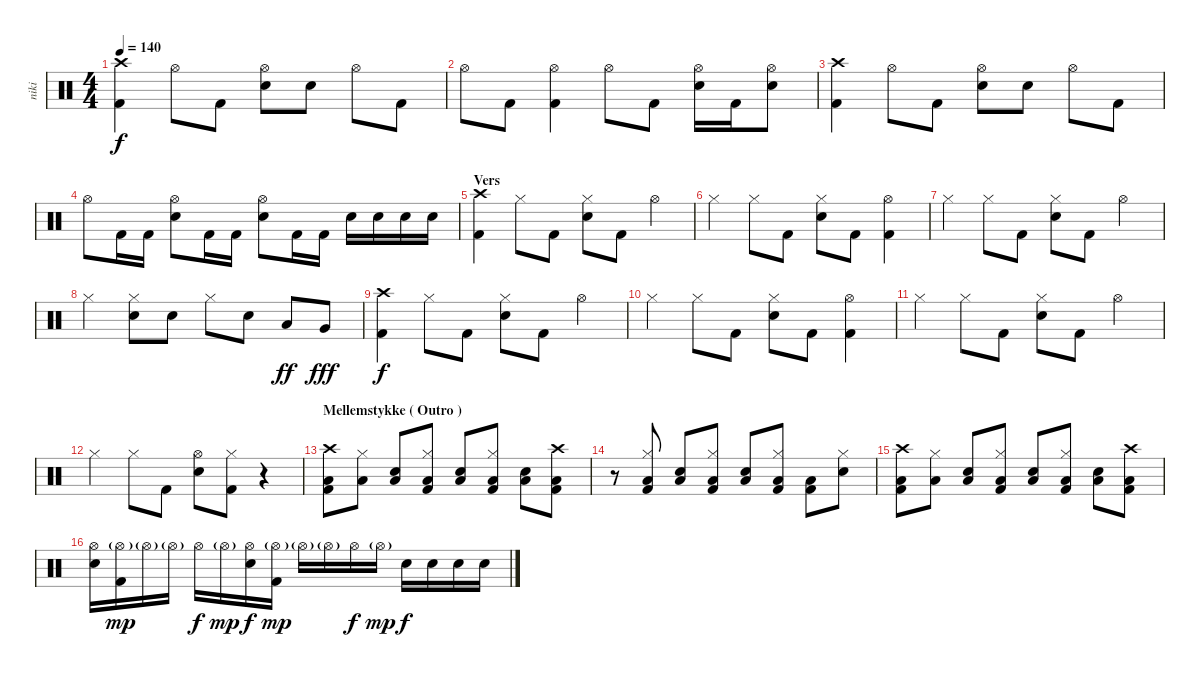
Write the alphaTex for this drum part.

\track ("niki" "niki") {instrument percussion}
\staff {score}
\articulation defaults
\ts (4 4)
\tempo 140
\clef neutral
\ks c
("Crash high (hit)" "Kick (hit) 2").4{dy f} "Hi-Hat (open)".8 "Kick (hit) 2".8 ("Hi-Hat (open)" "Snare (hit) 2").8 "Snare (hit) 2".8 "Hi-Hat (open)".8 "Kick (hit) 2".8 |
"Hi-Hat (open)".8 "Kick (hit) 2".8 ("Hi-Hat (open)" "Kick (hit) 2").4 "Hi-Hat (open)".8 "Kick (hit) 2".8 ("Hi-Hat (open)" "Snare (hit) 2").16 "Kick (hit) 2".16 ("Hi-Hat (open)" "Snare (hit) 2").8 |
("Crash high (hit)" "Kick (hit) 2").4 "Hi-Hat (open)".8 "Kick (hit) 2".8 ("Hi-Hat (open)" "Snare (hit) 2").8 "Snare (hit) 2".8 "Hi-Hat (open)".8 "Kick (hit) 2".8 |
"Hi-Hat (open)".8 "Kick (hit) 2".16 "Kick (hit) 2".16 ("Hi-Hat (open)" "Snare (hit) 2").8 "Kick (hit) 2".16 "Kick (hit) 2".16 ("Hi-Hat (open)" "Snare (hit) 2").8 "Kick (hit) 2".16 "Kick (hit) 2".16 "Snare (hit) 2".16 "Snare (hit) 2".16 "Snare (hit) 2".16 "Snare (hit) 2".16 |
\section ("" "Vers")
("Crash high (hit)" "Kick (hit) 2").4 "Hi-Hat (closed)".8 "Kick (hit) 2".8 ("Hi-Hat (closed)" "Snare (hit) 2").8 "Kick (hit) 2".8 "Hi-Hat (open)".4 |
"Hi-Hat (closed)".4 "Hi-Hat (closed)".8 "Kick (hit) 2".8 ("Hi-Hat (closed)" "Snare (hit) 2").8 "Kick (hit) 2".8 ("Hi-Hat (open)" "Kick (hit) 2").4 |
"Hi-Hat (closed)".4 "Hi-Hat (closed)".8 "Kick (hit) 2".8 ("Hi-Hat (closed)" "Snare (hit) 2").8 "Kick (hit) 2".8 "Hi-Hat (open)".4 |
"Hi-Hat (closed)".4 ("Hi-Hat (closed)" "Snare (hit) 2").8 "Snare (hit) 2".8 "Hi-Hat (closed)".8 "Snare (hit) 2".8 "Low Tom (hit)".8{dy ff} "Very Low Tom (hit)".8{dy fff} |
("Crash high (hit)" "Kick (hit) 2").4{dy f} "Hi-Hat (closed)".8 "Kick (hit) 2".8 ("Hi-Hat (closed)" "Snare (hit) 2").8 "Kick (hit) 2".8 "Hi-Hat (open)".4 |
"Hi-Hat (closed)".4 "Hi-Hat (closed)".8 "Kick (hit) 2".8 ("Hi-Hat (closed)" "Snare (hit) 2").8 "Kick (hit) 2".8 ("Hi-Hat (open)" "Kick (hit) 2").4 |
"Hi-Hat (closed)".4 "Hi-Hat (closed)".8 "Kick (hit) 2".8 ("Hi-Hat (closed)" "Snare (hit) 2").8 "Kick (hit) 2".8 "Hi-Hat (open)".4 |
"Hi-Hat (closed)".4 "Hi-Hat (closed)".8 "Kick (hit) 2".8 ("Hi-Hat (open)" "Snare (hit) 2").8 ("Hi-Hat (closed)" "Kick (hit) 2").8 r.4 |
\section ("" "Mellemstykke ( Outro )")
("Crash high (hit)" "Low Floor Tom (hit)" "Kick (hit) 2").8 ("Hi-Hat (closed)" "Low Floor Tom (hit)").8 ("Low Floor Tom (hit)" "Snare (hit) 2").8 ("Hi-Hat (closed)" "Low Floor Tom (hit)" "Kick (hit) 2").8 ("Low Floor Tom (hit)" "Snare (hit) 2").8 ("Hi-Hat (closed)" "Low Floor Tom (hit)" "Kick (hit) 2").8 ("Low Floor Tom (hit)" "Snare (hit) 2").8 ("Crash high (hit)" "Low Floor Tom (hit)" "Kick (hit) 2").8 |
r.8 ("Hi-Hat (closed)" "Low Floor Tom (hit)" "Kick (hit) 2").8 ("Low Floor Tom (hit)" "Snare (hit) 2").8 ("Hi-Hat (closed)" "Low Floor Tom (hit)" "Kick (hit) 2").8 ("Low Floor Tom (hit)" "Snare (hit) 2").8 ("Hi-Hat (closed)" "Low Floor Tom (hit)" "Kick (hit) 2").8 ("Low Floor Tom (hit)" "Kick (hit) 2").8 ("Hi-Hat (closed)" "Snare (hit) 2").8 |
("Crash high (hit)" "Low Floor Tom (hit)" "Kick (hit) 2").8 ("Hi-Hat (closed)" "Low Floor Tom (hit)").8 ("Low Floor Tom (hit)" "Snare (hit) 2").8 ("Hi-Hat (closed)" "Low Floor Tom (hit)" "Kick (hit) 2").8 ("Low Floor Tom (hit)" "Snare (hit) 2").8 ("Hi-Hat (closed)" "Low Floor Tom (hit)" "Kick (hit) 2").8 ("Low Floor Tom (hit)" "Snare (hit) 2").8 ("Crash high (hit)" "Low Floor Tom (hit)" "Kick (hit) 2").8 |
("Hi-Hat (open)" "Snare (hit) 2").16 ("Hi-Hat (open)"{g} "Kick (hit) 2").16{dy mp} "Hi-Hat (open)"{g}.16 "Hi-Hat (open)"{g}.16 "Hi-Hat (open)".16{dy f} "Hi-Hat (open)"{g}.16{dy mp} ("Hi-Hat (open)" "Snare (hit) 2").16{dy f} ("Hi-Hat (open)"{g} "Kick (hit) 2").16{dy mp} "Hi-Hat (open)"{g}.16 "Hi-Hat (open)"{g}.16 "Hi-Hat (open)".16{dy f} "Hi-Hat (open)"{g}.16{dy mp} "Snare (hit) 2".16{dy f} "Snare (hit) 2".16 "Snare (hit) 2".16 "Snare (hit) 2".16
